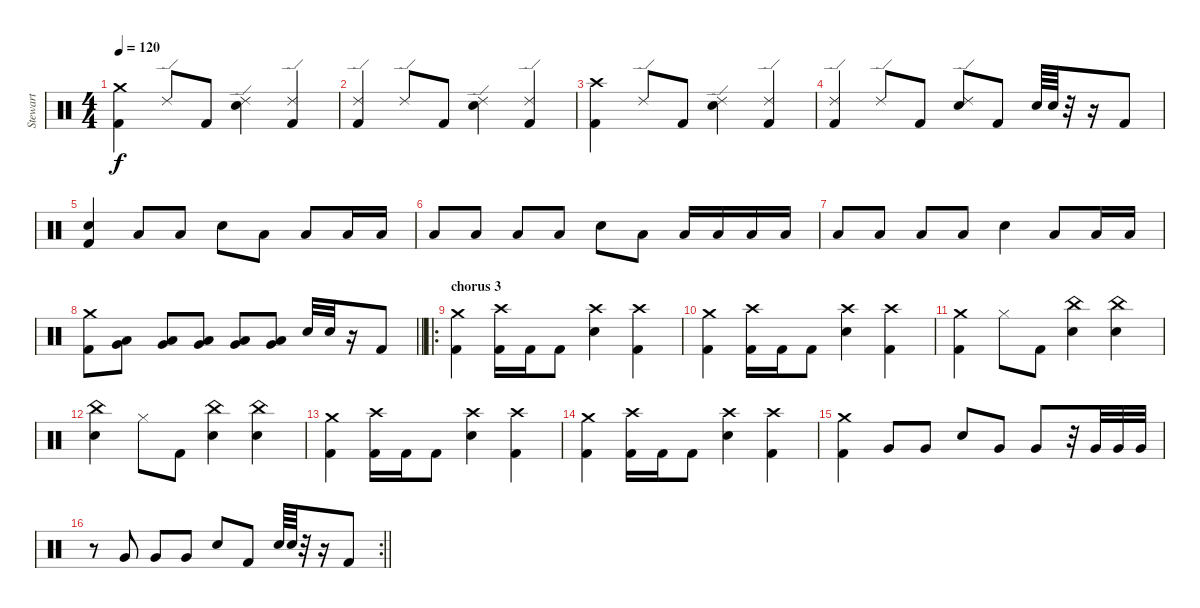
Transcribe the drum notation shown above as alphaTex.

\track ("Stewart" "Stewart") {instrument percussion}
\staff {score}
\articulation defaults
\ts (4 4)
\tempo 120
\clef neutral
\ks c
("Crash medium (hit)" "Kick (hit) 2").4{dy f} "Ride (edge) 2".8 "Kick (hit) 2".8 ("Ride (edge) 2" "Electric Snare (hit)").4 ("Ride (edge) 2" "Kick (hit) 2").4 |
("Ride (edge) 2" "Kick (hit) 2").4 "Ride (edge) 2".8 "Kick (hit) 2".8 ("Ride (edge) 2" "Electric Snare (hit)").4 ("Ride (edge) 2" "Kick (hit) 2").4 |
("Crash high (hit)" "Kick (hit) 2").4 "Ride (edge) 2".8 "Kick (hit) 2".8 ("Ride (edge) 2" "Electric Snare (hit)").4 ("Ride (edge) 2" "Kick (hit) 2").4 |
("Ride (edge) 2" "Kick (hit) 2").4 "Ride (edge) 2".8 "Kick (hit) 2".8 ("Ride (edge) 2" "Electric Snare (hit)").8 "Kick (hit) 2".8 "Electric Snare (hit)".64 "Electric Snare (hit)".64 r.32 r.16 "Kick (hit) 2".8 |
("Electric Snare (hit)" "Kick (hit) 2").4 "Low Tom (hit)".8 "Low Tom (hit)".8 "Electric Snare (hit)".8 "Low Tom (hit)".8 "Low Tom (hit)".8 "Low Tom (hit)".16 "Low Tom (hit)".16 |
"Low Tom (hit)".8 "Low Tom (hit)".8 "Low Tom (hit)".8 "Low Tom (hit)".8 "Electric Snare (hit)".8 "Low Tom (hit)".8 "Low Tom (hit)".16 "Low Tom (hit)".16 "Low Tom (hit)".16 "Low Tom (hit)".16 |
"Low Tom (hit)".8 "Low Tom (hit)".8 "Low Tom (hit)".8 "Low Tom (hit)".8 "Electric Snare (hit)".4 "Low Tom (hit)".8 "Low Tom (hit)".16 "Low Tom (hit)".16 |
\barLineRight lightlight
("Crash medium (hit)" "Kick (hit) 2").8 ("Very Low Tom (hit)" "Low Tom (hit)").8 ("Very Low Tom (hit)" "Low Tom (hit)").8 ("Very Low Tom (hit)" "Low Tom (hit)").8 ("Very Low Tom (hit)" "Low Tom (hit)").8 ("Very Low Tom (hit)" "Low Tom (hit)").8 "Electric Snare (hit)".32 "Electric Snare (hit)".32 r.16 "Kick (hit) 2".8 |
\ro
\section ("" "chorus 3")
("Crash medium (hit)" "Kick (hit) 2").4 ("Crash high (hit)" "Kick (hit) 2").16 "Kick (hit) 2".16 "Kick (hit) 2".8 ("Crash high (hit)" "Electric Snare (hit)").4 ("Crash high (hit)" "Kick (hit) 2").4 |
("Crash medium (hit)" "Kick (hit) 2").4 ("Crash high (hit)" "Kick (hit) 2").16 "Kick (hit) 2".16 "Kick (hit) 2".8 ("Crash high (hit)" "Electric Snare (hit)").4 ("Crash high (hit)" "Kick (hit) 2").4 |
("Crash medium (hit)" "Kick (hit) 2").4 "Hi-Hat (closed)".8 "Kick (hit) 2".8 ("China (hit)" "Electric Snare (hit)").4 ("China (hit)" "Electric Snare (hit)").4 |
("China (hit)" "Electric Snare (hit)").4 "Hi-Hat (closed)".8 "Kick (hit) 2".8 ("China (hit)" "Electric Snare (hit)").4 ("China (hit)" "Electric Snare (hit)").4 |
("Crash medium (hit)" "Kick (hit) 2").4 ("Crash high (hit)" "Kick (hit) 2").16 "Kick (hit) 2".16 "Kick (hit) 2".8 ("Crash high (hit)" "Electric Snare (hit)").4 ("Crash high (hit)" "Kick (hit) 2").4 |
("Crash medium (hit)" "Kick (hit) 2").4 ("Crash high (hit)" "Kick (hit) 2").16 "Kick (hit) 2".16 "Kick (hit) 2".8 ("Crash high (hit)" "Electric Snare (hit)").4 ("Crash high (hit)" "Kick (hit) 2").4 |
("Crash medium (hit)" "Kick (hit) 2").4 "Very Low Tom (hit)".8 "Very Low Tom (hit)".8 "Electric Snare (hit)".8 "Very Low Tom (hit)".8 "Very Low Tom (hit)".8 r.32 "Very Low Tom (hit)".32 "Very Low Tom (hit)".32 "Very Low Tom (hit)".32 |
\rc 2
\barLineRight lightlight
r.8 "Very Low Tom (hit)".8 "Very Low Tom (hit)".8 "Very Low Tom (hit)".8 "Electric Snare (hit)".8 "Kick (hit) 2".8 "Electric Snare (hit)".64 "Electric Snare (hit)".64 r.32 r.16 "Kick (hit) 2".8
